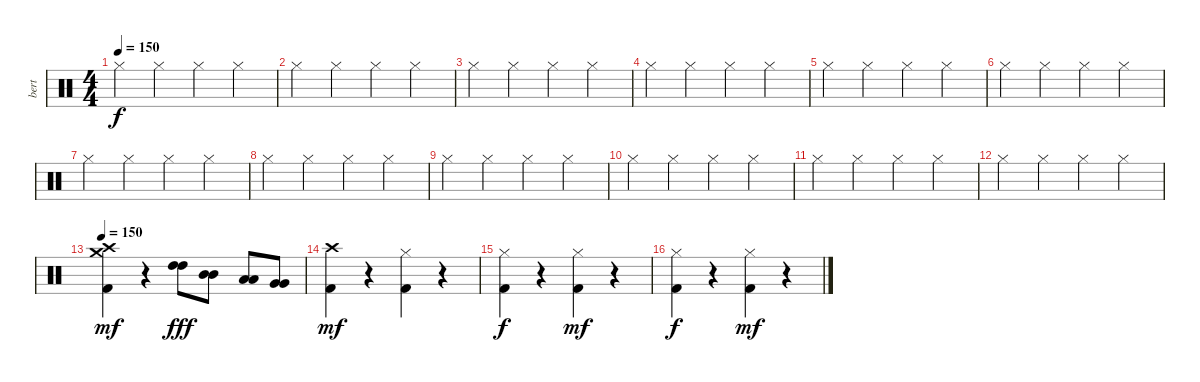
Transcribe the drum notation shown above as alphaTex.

\track ("bert" "bert") {instrument percussion}
\staff {score}
\articulation defaults
\ts (4 4)
\tempo 150
\tempo 140
\tempo 150
\clef neutral
\ks c "Hi-Hat (closed)".4{dy f} "Hi-Hat (closed)".4 "Hi-Hat (closed)".4 "Hi-Hat (closed)".4
|
"Hi-Hat (closed)".4 "Hi-Hat (closed)".4 "Hi-Hat (closed)".4 "Hi-Hat (closed)".4 |
"Hi-Hat (closed)".4 "Hi-Hat (closed)".4 "Hi-Hat (closed)".4 "Hi-Hat (closed)".4 |
"Hi-Hat (closed)".4 "Hi-Hat (closed)".4 "Hi-Hat (closed)".4 "Hi-Hat (closed)".4 |
"Hi-Hat (closed)".4 "Hi-Hat (closed)".4 "Hi-Hat (closed)".4 "Hi-Hat (closed)".4 |
"Hi-Hat (closed)".4 "Hi-Hat (closed)".4 "Hi-Hat (closed)".4 "Hi-Hat (closed)".4 |
"Hi-Hat (closed)".4 "Hi-Hat (closed)".4 "Hi-Hat (closed)".4 "Hi-Hat (closed)".4 |
"Hi-Hat (closed)".4 "Hi-Hat (closed)".4 "Hi-Hat (closed)".4 "Hi-Hat (closed)".4 |
"Hi-Hat (closed)".4 "Hi-Hat (closed)".4 "Hi-Hat (closed)".4 "Hi-Hat (closed)".4 |
"Hi-Hat (closed)".4 "Hi-Hat (closed)".4 "Hi-Hat (closed)".4 "Hi-Hat (closed)".4 |
"Hi-Hat (closed)".4 "Hi-Hat (closed)".4 "Hi-Hat (closed)".4 "Hi-Hat (closed)".4 |
"Hi-Hat (closed)".4 "Hi-Hat (closed)".4 "Hi-Hat (closed)".4 "Hi-Hat (closed)".4 |
\tempo 150
("Crash high (hit)" "Crash medium (hit)" "Kick (hit) 2").4{dy mf} r.4 ("High Tom (hit)" "High Tom (hit)").8{dy fff} ("Mid Tom (hit)" "Mid Tom (hit)").8 ("Low Tom (hit)" "Low Tom (hit)").8 ("Very Low Tom (hit)" "Very Low Tom (hit)").8 |
("Crash high (hit)" "Kick (hit) 2").4{dy mf} r.4 ("Hi-Hat (closed)" "Kick (hit) 2").4 r.4 |
("Hi-Hat (closed)" "Kick (hit) 2").4{dy f} r.4 ("Hi-Hat (closed)" "Kick (hit) 2").4{dy mf} r.4 |
("Hi-Hat (closed)" "Kick (hit) 2").4{dy f} r.4 ("Hi-Hat (closed)" "Kick (hit) 2").4{dy mf} r.4
